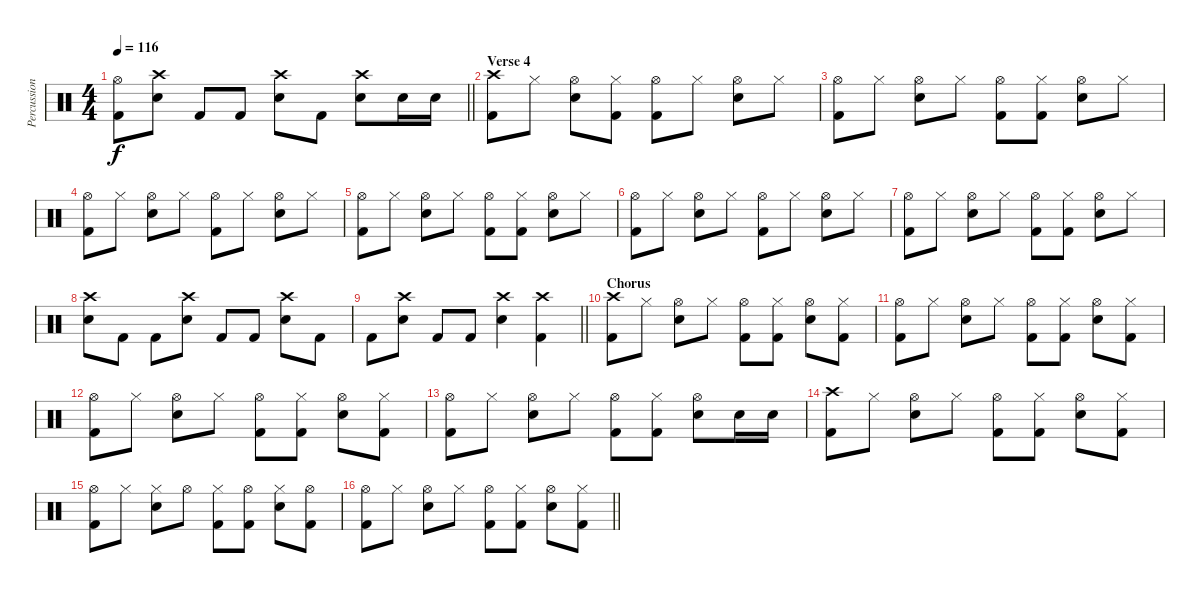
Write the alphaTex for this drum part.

\track ("Percussion" "Percussion") {instrument percussion}
\staff {score}
\articulation defaults
\ts (4 4)
\tempo 116
\clef neutral
\barLineRight lightlight
\ks c
("Hi-Hat (open)" "Kick (hit) 2").8{dy f} ("Crash high (hit)" "Snare (hit) 2").8 "Kick (hit) 2".8 "Kick (hit) 2".8 ("Crash high (hit)" "Snare (hit) 2").8 "Kick (hit) 2".8 ("Crash high (hit)" "Snare (hit) 2").8 "Snare (hit) 2".16 "Snare (hit) 2".16 |
\section ("" "Verse 4")
("Crash high (hit)" "Kick (hit) 2").8 "Hi-Hat (closed)".8 ("Hi-Hat (open)" "Snare (hit) 2").8 ("Hi-Hat (closed)" "Kick (hit) 2").8 ("Hi-Hat (open)" "Kick (hit) 2").8 "Hi-Hat (closed)".8 ("Hi-Hat (open)" "Snare (hit) 2").8 "Hi-Hat (closed)".8 |
("Hi-Hat (open)" "Kick (hit) 2").8 "Hi-Hat (closed)".8 ("Hi-Hat (open)" "Snare (hit) 2").8 "Hi-Hat (closed)".8 ("Hi-Hat (open)" "Kick (hit) 2").8 ("Hi-Hat (closed)" "Kick (hit) 2").8 ("Hi-Hat (open)" "Snare (hit) 2").8 "Hi-Hat (closed)".8 |
("Hi-Hat (open)" "Kick (hit) 2").8 "Hi-Hat (closed)".8 ("Hi-Hat (open)" "Snare (hit) 2").8 "Hi-Hat (closed)".8 ("Hi-Hat (open)" "Kick (hit) 2").8 "Hi-Hat (closed)".8 ("Hi-Hat (open)" "Snare (hit) 2").8 "Hi-Hat (closed)".8 |
("Hi-Hat (open)" "Kick (hit) 2").8 "Hi-Hat (closed)".8 ("Hi-Hat (open)" "Snare (hit) 2").8 "Hi-Hat (closed)".8 ("Hi-Hat (open)" "Kick (hit) 2").8 ("Hi-Hat (closed)" "Kick (hit) 2").8 ("Hi-Hat (open)" "Snare (hit) 2").8 "Hi-Hat (closed)".8 |
("Hi-Hat (open)" "Kick (hit) 2").8 "Hi-Hat (closed)".8 ("Hi-Hat (open)" "Snare (hit) 2").8 "Hi-Hat (closed)".8 ("Hi-Hat (open)" "Kick (hit) 2").8 "Hi-Hat (closed)".8 ("Hi-Hat (open)" "Snare (hit) 2").8 "Hi-Hat (closed)".8 |
("Hi-Hat (open)" "Kick (hit) 2").8 "Hi-Hat (closed)".8 ("Hi-Hat (open)" "Snare (hit) 2").8 "Hi-Hat (closed)".8 ("Hi-Hat (open)" "Kick (hit) 2").8 ("Hi-Hat (closed)" "Kick (hit) 2").8 ("Hi-Hat (open)" "Snare (hit) 2").8 "Hi-Hat (closed)".8 |
("Crash high (hit)" "Snare (hit) 2").8 "Kick (hit) 2".8 "Kick (hit) 2".8 ("Crash high (hit)" "Snare (hit) 2").8 "Kick (hit) 2".8 "Kick (hit) 2".8 ("Crash high (hit)" "Snare (hit) 2").8 "Kick (hit) 2".8 |
\barLineRight lightlight "Kick (hit) 2".8
("Crash high (hit)" "Snare (hit) 2").8 "Kick (hit) 2".8 "Kick (hit) 2".8 ("Crash high (hit)" "Snare (hit) 2").4 ("Crash high (hit)" "Kick (hit) 2").4 |
\section ("" "Chorus")
("Crash high (hit)" "Kick (hit) 2").8 "Hi-Hat (closed)".8 ("Hi-Hat (open)" "Snare (hit) 2").8 "Hi-Hat (closed)".8 ("Hi-Hat (open)" "Kick (hit) 2").8 ("Hi-Hat (closed)" "Kick (hit) 2").8 ("Hi-Hat (open)" "Snare (hit) 2").8 ("Hi-Hat (closed)" "Kick (hit) 2").8 |
("Hi-Hat (open)" "Kick (hit) 2").8 "Hi-Hat (closed)".8 ("Hi-Hat (open)" "Snare (hit) 2").8 "Hi-Hat (closed)".8 ("Hi-Hat (open)" "Kick (hit) 2").8 ("Hi-Hat (closed)" "Kick (hit) 2").8 ("Hi-Hat (open)" "Snare (hit) 2").8 ("Hi-Hat (closed)" "Kick (hit) 2").8 |
("Hi-Hat (open)" "Kick (hit) 2").8 "Hi-Hat (closed)".8 ("Hi-Hat (open)" "Snare (hit) 2").8 "Hi-Hat (closed)".8 ("Hi-Hat (open)" "Kick (hit) 2").8 ("Hi-Hat (closed)" "Kick (hit) 2").8 ("Hi-Hat (open)" "Snare (hit) 2").8 ("Hi-Hat (closed)" "Kick (hit) 2").8 |
("Hi-Hat (open)" "Kick (hit) 2").8 "Hi-Hat (closed)".8 ("Hi-Hat (open)" "Snare (hit) 2").8 "Hi-Hat (closed)".8 ("Hi-Hat (open)" "Kick (hit) 2").8 ("Hi-Hat (closed)" "Kick (hit) 2").8 ("Hi-Hat (open)" "Snare (hit) 2").8 "Snare (hit) 2".16 "Snare (hit) 2".16 |
("Crash high (hit)" "Kick (hit) 2").8 "Hi-Hat (closed)".8 ("Hi-Hat (open)" "Snare (hit) 2").8 "Hi-Hat (closed)".8 ("Hi-Hat (open)" "Kick (hit) 2").8 ("Hi-Hat (closed)" "Kick (hit) 2").8 ("Hi-Hat (open)" "Snare (hit) 2").8 ("Hi-Hat (closed)" "Kick (hit) 2").8 |
("Hi-Hat (open)" "Kick (hit) 2").8 "Hi-Hat (closed)".8 ("Hi-Hat (closed)" "Snare (hit) 2").8 "Hi-Hat (open)".8 ("Hi-Hat (closed)" "Kick (hit) 2").8 ("Hi-Hat (open)" "Kick (hit) 2").8 ("Hi-Hat (closed)" "Snare (hit) 2").8 ("Hi-Hat (open)" "Kick (hit) 2").8 |
\barLineRight lightlight
("Hi-Hat (open)" "Kick (hit) 2").8 "Hi-Hat (closed)".8 ("Hi-Hat (open)" "Snare (hit) 2").8 "Hi-Hat (closed)".8 ("Hi-Hat (open)" "Kick (hit) 2").8 ("Hi-Hat (closed)" "Kick (hit) 2").8 ("Hi-Hat (open)" "Snare (hit) 2").8 ("Hi-Hat (closed)" "Kick (hit) 2").8
